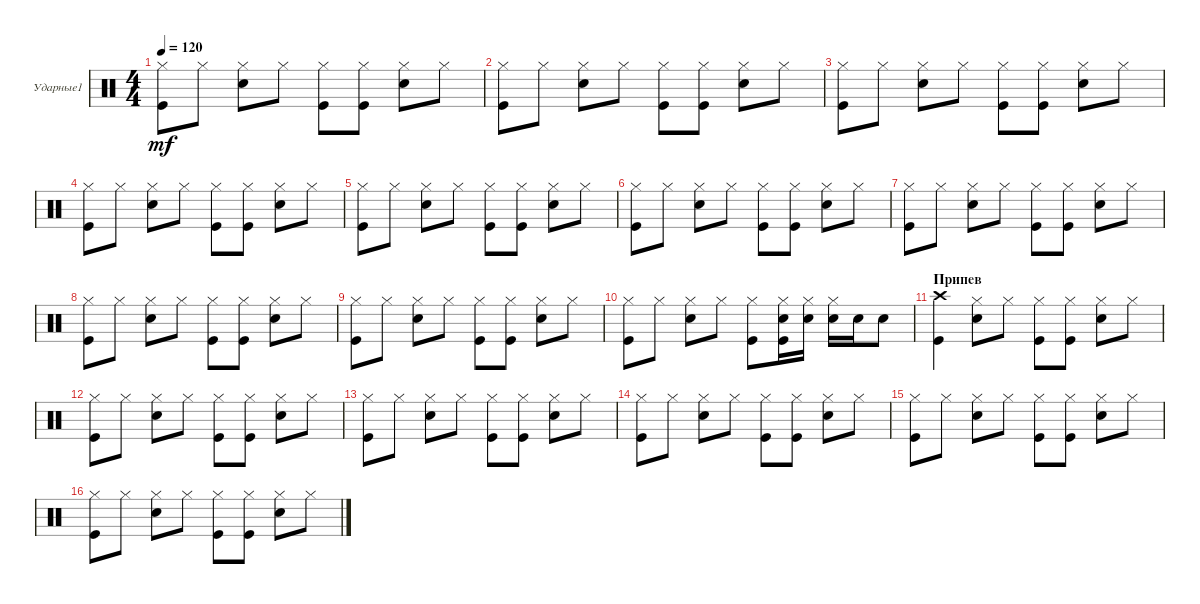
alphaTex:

\defaultSystemsLayout 4
\bracketExtendMode groupsimilarinstruments
\firstSystemTrackNameOrientation horizontal
\otherSystemsTrackNameOrientation horizontal
\track ("Е.Кулаков" "Ударные1") {instrument percussion}
\staff {score}
\articulation defaults
\ts (4 4)
\tempo 120
\clef neutral
\ks c
("Hi-Hat (closed)" "Kick (hit)").8{dy mf} "Hi-Hat (closed)".8 ("Hi-Hat (closed)" "Snare (hit) 2").8 "Hi-Hat (closed)".8 ("Hi-Hat (closed)" "Kick (hit)").8 ("Hi-Hat (closed)" "Kick (hit)").8 ("Hi-Hat (closed)" "Snare (hit) 2").8 "Hi-Hat (closed)".8 |
("Hi-Hat (closed)" "Kick (hit)").8 "Hi-Hat (closed)".8 ("Hi-Hat (closed)" "Snare (hit) 2").8 "Hi-Hat (closed)".8 ("Hi-Hat (closed)" "Kick (hit)").8 ("Hi-Hat (closed)" "Kick (hit)").8 ("Hi-Hat (closed)" "Snare (hit) 2").8 "Hi-Hat (closed)".8 |
("Hi-Hat (closed)" "Kick (hit)").8 "Hi-Hat (closed)".8 ("Hi-Hat (closed)" "Snare (hit) 2").8 "Hi-Hat (closed)".8 ("Hi-Hat (closed)" "Kick (hit)").8 ("Hi-Hat (closed)" "Kick (hit)").8 ("Hi-Hat (closed)" "Snare (hit) 2").8 "Hi-Hat (closed)".8 |
("Hi-Hat (closed)" "Kick (hit)").8 "Hi-Hat (closed)".8 ("Hi-Hat (closed)" "Snare (hit) 2").8 "Hi-Hat (closed)".8 ("Hi-Hat (closed)" "Kick (hit)").8 ("Hi-Hat (closed)" "Kick (hit)").8 ("Hi-Hat (closed)" "Snare (hit) 2").8 "Hi-Hat (closed)".8 |
("Hi-Hat (closed)" "Kick (hit)").8 "Hi-Hat (closed)".8 ("Hi-Hat (closed)" "Snare (hit) 2").8 "Hi-Hat (closed)".8 ("Hi-Hat (closed)" "Kick (hit)").8 ("Hi-Hat (closed)" "Kick (hit)").8 ("Hi-Hat (closed)" "Snare (hit) 2").8 "Hi-Hat (closed)".8 |
("Hi-Hat (closed)" "Kick (hit)").8 "Hi-Hat (closed)".8 ("Hi-Hat (closed)" "Snare (hit) 2").8 "Hi-Hat (closed)".8 ("Hi-Hat (closed)" "Kick (hit)").8 ("Hi-Hat (closed)" "Kick (hit)").8 ("Hi-Hat (closed)" "Snare (hit) 2").8 "Hi-Hat (closed)".8 |
("Hi-Hat (closed)" "Kick (hit)").8 "Hi-Hat (closed)".8 ("Hi-Hat (closed)" "Snare (hit) 2").8 "Hi-Hat (closed)".8 ("Hi-Hat (closed)" "Kick (hit)").8 ("Hi-Hat (closed)" "Kick (hit)").8 ("Hi-Hat (closed)" "Snare (hit) 2").8 "Hi-Hat (closed)".8 |
("Hi-Hat (closed)" "Kick (hit)").8 "Hi-Hat (closed)".8 ("Hi-Hat (closed)" "Snare (hit) 2").8 "Hi-Hat (closed)".8 ("Hi-Hat (closed)" "Kick (hit)").8 ("Hi-Hat (closed)" "Kick (hit)").8 ("Hi-Hat (closed)" "Snare (hit) 2").8 "Hi-Hat (closed)".8 |
("Hi-Hat (closed)" "Kick (hit)").8 "Hi-Hat (closed)".8 ("Hi-Hat (closed)" "Snare (hit) 2").8 "Hi-Hat (closed)".8 ("Hi-Hat (closed)" "Kick (hit)").8 ("Hi-Hat (closed)" "Kick (hit)").8 ("Hi-Hat (closed)" "Snare (hit) 2").8 "Hi-Hat (closed)".8 |
("Hi-Hat (closed)" "Kick (hit)").8 "Hi-Hat (closed)".8 ("Hi-Hat (closed)" "Snare (hit) 2").8 "Hi-Hat (closed)".8 ("Hi-Hat (closed)" "Kick (hit)").8 ("Hi-Hat (closed)" "Kick (hit)" "Snare (hit) 2").16 ("Hi-Hat (closed)" "Snare (hit) 2").16 ("Hi-Hat (closed)" "Snare (hit) 2").16 "Snare (hit) 2".16 "Snare (hit) 2".8 |
\section ("" "Припев")
("Crash high (hit)" "Kick (hit)").4 ("Hi-Hat (closed)" "Snare (hit) 2").8 "Hi-Hat (closed)".8 ("Hi-Hat (closed)" "Kick (hit)").8 ("Hi-Hat (closed)" "Kick (hit)").8 ("Hi-Hat (closed)" "Snare (hit) 2").8 "Hi-Hat (closed)".8 |
("Hi-Hat (closed)" "Kick (hit)").8 "Hi-Hat (closed)".8 ("Hi-Hat (closed)" "Snare (hit) 2").8 "Hi-Hat (closed)".8 ("Hi-Hat (closed)" "Kick (hit)").8 ("Hi-Hat (closed)" "Kick (hit)").8 ("Hi-Hat (closed)" "Snare (hit) 2").8 "Hi-Hat (closed)".8 |
("Hi-Hat (closed)" "Kick (hit)").8 "Hi-Hat (closed)".8 ("Hi-Hat (closed)" "Snare (hit) 2").8 "Hi-Hat (closed)".8 ("Hi-Hat (closed)" "Kick (hit)").8 ("Hi-Hat (closed)" "Kick (hit)").8 ("Hi-Hat (closed)" "Snare (hit) 2").8 "Hi-Hat (closed)".8 |
("Hi-Hat (closed)" "Kick (hit)").8 "Hi-Hat (closed)".8 ("Hi-Hat (closed)" "Snare (hit) 2").8 "Hi-Hat (closed)".8 ("Hi-Hat (closed)" "Kick (hit)").8 ("Hi-Hat (closed)" "Kick (hit)").8 ("Hi-Hat (closed)" "Snare (hit) 2").8 "Hi-Hat (closed)".8 |
("Hi-Hat (closed)" "Kick (hit)").8 "Hi-Hat (closed)".8 ("Hi-Hat (closed)" "Snare (hit) 2").8 "Hi-Hat (closed)".8 ("Hi-Hat (closed)" "Kick (hit)").8 ("Hi-Hat (closed)" "Kick (hit)").8 ("Hi-Hat (closed)" "Snare (hit) 2").8 "Hi-Hat (closed)".8 |
("Hi-Hat (closed)" "Kick (hit)").8 "Hi-Hat (closed)".8 ("Hi-Hat (closed)" "Snare (hit) 2").8 "Hi-Hat (closed)".8 ("Hi-Hat (closed)" "Kick (hit)").8 ("Hi-Hat (closed)" "Kick (hit)").8 ("Hi-Hat (closed)" "Snare (hit) 2").8 "Hi-Hat (closed)".8
